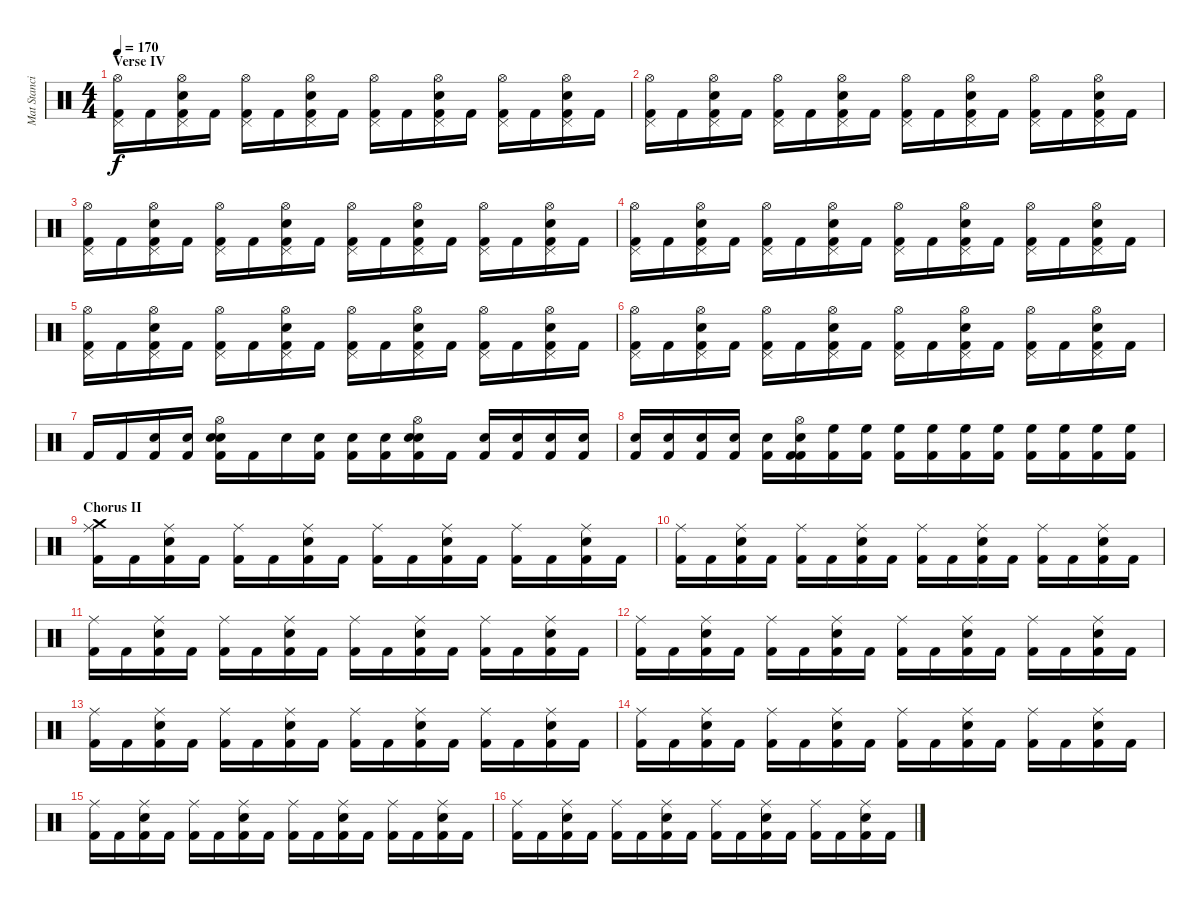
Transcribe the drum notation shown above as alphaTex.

\track ("Mat Stancioiu" "Mat Stanci") {instrument percussion}
\staff {score}
\articulation defaults
\ts (4 4)
\section ("" "Verse IV")
\tempo 170
\clef neutral
\ks c
("Hi-Hat (open)" "Kick (hit) 2" "Pedal Hi-Hat (hit)").16{dy f} "Kick (hit) 2".16 ("Electric Snare (hit)" "Hi-Hat (open)" "Kick (hit) 2" "Pedal Hi-Hat (hit)").16 "Kick (hit) 2".16 ("Hi-Hat (open)" "Kick (hit) 2" "Pedal Hi-Hat (hit)").16 "Kick (hit) 2".16 ("Electric Snare (hit)" "Hi-Hat (open)" "Kick (hit) 2" "Pedal Hi-Hat (hit)").16 "Kick (hit) 2".16 ("Hi-Hat (open)" "Kick (hit) 2" "Pedal Hi-Hat (hit)").16 "Kick (hit) 2".16 ("Electric Snare (hit)" "Hi-Hat (open)" "Kick (hit) 2" "Pedal Hi-Hat (hit)").16 "Kick (hit) 2".16 ("Hi-Hat (open)" "Kick (hit) 2" "Pedal Hi-Hat (hit)").16 "Kick (hit) 2".16 ("Electric Snare (hit)" "Hi-Hat (open)" "Kick (hit) 2" "Pedal Hi-Hat (hit)").16 "Kick (hit) 2".16 |
("Hi-Hat (open)" "Kick (hit) 2" "Pedal Hi-Hat (hit)").16 "Kick (hit) 2".16 ("Electric Snare (hit)" "Hi-Hat (open)" "Kick (hit) 2" "Pedal Hi-Hat (hit)").16 "Kick (hit) 2".16 ("Hi-Hat (open)" "Kick (hit) 2" "Pedal Hi-Hat (hit)").16 "Kick (hit) 2".16 ("Electric Snare (hit)" "Hi-Hat (open)" "Kick (hit) 2" "Pedal Hi-Hat (hit)").16 "Kick (hit) 2".16 ("Hi-Hat (open)" "Kick (hit) 2" "Pedal Hi-Hat (hit)").16 "Kick (hit) 2".16 ("Electric Snare (hit)" "Hi-Hat (open)" "Kick (hit) 2" "Pedal Hi-Hat (hit)").16 "Kick (hit) 2".16 ("Hi-Hat (open)" "Kick (hit) 2" "Pedal Hi-Hat (hit)").16 "Kick (hit) 2".16 ("Electric Snare (hit)" "Hi-Hat (open)" "Kick (hit) 2" "Pedal Hi-Hat (hit)").16 "Kick (hit) 2".16 |
("Hi-Hat (open)" "Kick (hit) 2" "Pedal Hi-Hat (hit)").16 "Kick (hit) 2".16 ("Electric Snare (hit)" "Hi-Hat (open)" "Kick (hit) 2" "Pedal Hi-Hat (hit)").16 "Kick (hit) 2".16 ("Hi-Hat (open)" "Kick (hit) 2" "Pedal Hi-Hat (hit)").16 "Kick (hit) 2".16 ("Electric Snare (hit)" "Hi-Hat (open)" "Kick (hit) 2" "Pedal Hi-Hat (hit)").16 "Kick (hit) 2".16 ("Hi-Hat (open)" "Kick (hit) 2" "Pedal Hi-Hat (hit)").16 "Kick (hit) 2".16 ("Electric Snare (hit)" "Hi-Hat (open)" "Kick (hit) 2" "Pedal Hi-Hat (hit)").16 "Kick (hit) 2".16 ("Hi-Hat (open)" "Kick (hit) 2" "Pedal Hi-Hat (hit)").16 "Kick (hit) 2".16 ("Electric Snare (hit)" "Hi-Hat (open)" "Kick (hit) 2" "Pedal Hi-Hat (hit)").16 "Kick (hit) 2".16 |
("Hi-Hat (open)" "Kick (hit) 2" "Pedal Hi-Hat (hit)").16 "Kick (hit) 2".16 ("Electric Snare (hit)" "Hi-Hat (open)" "Kick (hit) 2" "Pedal Hi-Hat (hit)").16 "Kick (hit) 2".16 ("Hi-Hat (open)" "Kick (hit) 2" "Pedal Hi-Hat (hit)").16 "Kick (hit) 2".16 ("Electric Snare (hit)" "Hi-Hat (open)" "Kick (hit) 2" "Pedal Hi-Hat (hit)").16 "Kick (hit) 2".16 ("Hi-Hat (open)" "Kick (hit) 2" "Pedal Hi-Hat (hit)").16 "Kick (hit) 2".16 ("Electric Snare (hit)" "Hi-Hat (open)" "Kick (hit) 2" "Pedal Hi-Hat (hit)").16 "Kick (hit) 2".16 ("Hi-Hat (open)" "Kick (hit) 2" "Pedal Hi-Hat (hit)").16 "Kick (hit) 2".16 ("Electric Snare (hit)" "Hi-Hat (open)" "Kick (hit) 2" "Pedal Hi-Hat (hit)").16 "Kick (hit) 2".16 |
("Hi-Hat (open)" "Kick (hit) 2" "Pedal Hi-Hat (hit)").16 "Kick (hit) 2".16 ("Electric Snare (hit)" "Hi-Hat (open)" "Kick (hit) 2" "Pedal Hi-Hat (hit)").16 "Kick (hit) 2".16 ("Hi-Hat (open)" "Kick (hit) 2" "Pedal Hi-Hat (hit)").16 "Kick (hit) 2".16 ("Electric Snare (hit)" "Hi-Hat (open)" "Kick (hit) 2" "Pedal Hi-Hat (hit)").16 "Kick (hit) 2".16 ("Hi-Hat (open)" "Kick (hit) 2" "Pedal Hi-Hat (hit)").16 "Kick (hit) 2".16 ("Electric Snare (hit)" "Hi-Hat (open)" "Kick (hit) 2" "Pedal Hi-Hat (hit)").16 "Kick (hit) 2".16 ("Hi-Hat (open)" "Kick (hit) 2" "Pedal Hi-Hat (hit)").16 "Kick (hit) 2".16 ("Electric Snare (hit)" "Hi-Hat (open)" "Kick (hit) 2" "Pedal Hi-Hat (hit)").16 "Kick (hit) 2".16 |
("Hi-Hat (open)" "Kick (hit) 2" "Pedal Hi-Hat (hit)").16 "Kick (hit) 2".16 ("Electric Snare (hit)" "Hi-Hat (open)" "Kick (hit) 2" "Pedal Hi-Hat (hit)").16 "Kick (hit) 2".16 ("Hi-Hat (open)" "Kick (hit) 2" "Pedal Hi-Hat (hit)").16 "Kick (hit) 2".16 ("Electric Snare (hit)" "Hi-Hat (open)" "Kick (hit) 2" "Pedal Hi-Hat (hit)").16 "Kick (hit) 2".16 ("Hi-Hat (open)" "Kick (hit) 2" "Pedal Hi-Hat (hit)").16 "Kick (hit) 2".16 ("Electric Snare (hit)" "Hi-Hat (open)" "Kick (hit) 2" "Pedal Hi-Hat (hit)").16 "Kick (hit) 2".16 ("Hi-Hat (open)" "Kick (hit) 2" "Pedal Hi-Hat (hit)").16 "Kick (hit) 2".16 ("Electric Snare (hit)" "Hi-Hat (open)" "Kick (hit) 2" "Pedal Hi-Hat (hit)").16 "Kick (hit) 2".16 |
"Kick (hit) 2".16 "Kick (hit) 2".16 ("Electric Snare (hit)" "Kick (hit) 2").16 ("Electric Snare (hit)" "Kick (hit) 2").16 ("Electric Snare (hit)" "Kick (hit) 2" "Hi-Hat (open)" "Snare (hit)").16 "Kick (hit) 2".16 "Electric Snare (hit)".16 ("Electric Snare (hit)" "Kick (hit) 2").16 ("Electric Snare (hit)" "Kick (hit) 2").16 ("Electric Snare (hit)" "Kick (hit) 2").16 ("Electric Snare (hit)" "Kick (hit) 2" "Hi-Hat (open)" "Snare (hit)").16 "Kick (hit) 2".16 ("Electric Snare (hit)" "Kick (hit) 2").16 ("Electric Snare (hit)" "Kick (hit) 2").16 ("Electric Snare (hit)" "Kick (hit) 2").16 ("Electric Snare (hit)" "Kick (hit) 2").16 |
("Electric Snare (hit)" "Kick (hit) 2").16 ("Electric Snare (hit)" "Kick (hit) 2").16 ("Electric Snare (hit)" "Kick (hit) 2").16 ("Electric Snare (hit)" "Kick (hit) 2").16 ("Electric Snare (hit)" "Kick (hit) 2").16 ("Kick (hit) 2" "Kick (hit) 2" "Hi-Hat (open)" "Snare (hit)").16 ("Kick (hit) 2" "High Floor Tom (hit)").16 ("Kick (hit) 2" "High Floor Tom (hit)").16 ("Kick (hit) 2" "High Floor Tom (hit)").16 ("Kick (hit) 2" "High Floor Tom (hit)").16 ("Kick (hit) 2" "High Floor Tom (hit)").16 ("Kick (hit) 2" "High Floor Tom (hit)").16 ("Kick (hit) 2" "High Floor Tom (hit)").16 ("Kick (hit) 2" "High Floor Tom (hit)").16 ("Kick (hit) 2" "High Floor Tom (hit)").16 ("Kick (hit) 2" "High Floor Tom (hit)").16 |
\section ("" "Chorus II")
("Crash medium (hit)" "Kick (hit) 2" "Ride (middle)").16 "Kick (hit) 2".16 ("Electric Snare (hit)" "Kick (hit) 2" "Ride (middle)").16 "Kick (hit) 2".16 ("Kick (hit) 2" "Ride (middle)").16 "Kick (hit) 2".16 ("Electric Snare (hit)" "Kick (hit) 2" "Ride (middle)").16 "Kick (hit) 2".16 ("Kick (hit) 2" "Ride (middle)").16 "Kick (hit) 2".16 ("Electric Snare (hit)" "Kick (hit) 2" "Ride (middle)").16 "Kick (hit) 2".16 ("Kick (hit) 2" "Ride (middle)").16 "Kick (hit) 2".16 ("Electric Snare (hit)" "Kick (hit) 2" "Ride (middle)").16 "Kick (hit) 2".16 |
("Kick (hit) 2" "Ride (middle)").16 "Kick (hit) 2".16 ("Electric Snare (hit)" "Kick (hit) 2" "Ride (middle)").16 "Kick (hit) 2".16 ("Kick (hit) 2" "Ride (middle)").16 "Kick (hit) 2".16 ("Electric Snare (hit)" "Kick (hit) 2" "Ride (middle)").16 "Kick (hit) 2".16 ("Kick (hit) 2" "Ride (middle)").16 "Kick (hit) 2".16 ("Electric Snare (hit)" "Kick (hit) 2" "Ride (middle)").16 "Kick (hit) 2".16 ("Kick (hit) 2" "Ride (middle)").16 "Kick (hit) 2".16 ("Electric Snare (hit)" "Kick (hit) 2" "Ride (middle)").16 "Kick (hit) 2".16 |
("Kick (hit) 2" "Ride (middle)").16 "Kick (hit) 2".16 ("Electric Snare (hit)" "Kick (hit) 2" "Ride (middle)").16 "Kick (hit) 2".16 ("Kick (hit) 2" "Ride (middle)").16 "Kick (hit) 2".16 ("Electric Snare (hit)" "Kick (hit) 2" "Ride (middle)").16 "Kick (hit) 2".16 ("Kick (hit) 2" "Ride (middle)").16 "Kick (hit) 2".16 ("Electric Snare (hit)" "Kick (hit) 2" "Ride (middle)").16 "Kick (hit) 2".16 ("Kick (hit) 2" "Ride (middle)").16 "Kick (hit) 2".16 ("Electric Snare (hit)" "Kick (hit) 2" "Ride (middle)").16 "Kick (hit) 2".16 |
("Kick (hit) 2" "Ride (middle)").16 "Kick (hit) 2".16 ("Electric Snare (hit)" "Kick (hit) 2" "Ride (middle)").16 "Kick (hit) 2".16 ("Kick (hit) 2" "Ride (middle)").16 "Kick (hit) 2".16 ("Electric Snare (hit)" "Kick (hit) 2" "Ride (middle)").16 "Kick (hit) 2".16 ("Kick (hit) 2" "Ride (middle)").16 "Kick (hit) 2".16 ("Electric Snare (hit)" "Kick (hit) 2" "Ride (middle)").16 "Kick (hit) 2".16 ("Kick (hit) 2" "Ride (middle)").16 "Kick (hit) 2".16 ("Electric Snare (hit)" "Kick (hit) 2" "Ride (middle)").16 "Kick (hit) 2".16 |
("Kick (hit) 2" "Ride (middle)").16 "Kick (hit) 2".16 ("Electric Snare (hit)" "Kick (hit) 2" "Ride (middle)").16 "Kick (hit) 2".16 ("Kick (hit) 2" "Ride (middle)").16 "Kick (hit) 2".16 ("Electric Snare (hit)" "Kick (hit) 2" "Ride (middle)").16 "Kick (hit) 2".16 ("Kick (hit) 2" "Ride (middle)").16 "Kick (hit) 2".16 ("Electric Snare (hit)" "Kick (hit) 2" "Ride (middle)").16 "Kick (hit) 2".16 ("Kick (hit) 2" "Ride (middle)").16 "Kick (hit) 2".16 ("Electric Snare (hit)" "Kick (hit) 2" "Ride (middle)").16 "Kick (hit) 2".16 |
("Kick (hit) 2" "Ride (middle)").16 "Kick (hit) 2".16 ("Electric Snare (hit)" "Kick (hit) 2" "Ride (middle)").16 "Kick (hit) 2".16 ("Kick (hit) 2" "Ride (middle)").16 "Kick (hit) 2".16 ("Electric Snare (hit)" "Kick (hit) 2" "Ride (middle)").16 "Kick (hit) 2".16 ("Kick (hit) 2" "Ride (middle)").16 "Kick (hit) 2".16 ("Electric Snare (hit)" "Kick (hit) 2" "Ride (middle)").16 "Kick (hit) 2".16 ("Kick (hit) 2" "Ride (middle)").16 "Kick (hit) 2".16 ("Electric Snare (hit)" "Kick (hit) 2" "Ride (middle)").16 "Kick (hit) 2".16 |
("Kick (hit) 2" "Ride (middle)").16 "Kick (hit) 2".16 ("Electric Snare (hit)" "Kick (hit) 2" "Ride (middle)").16 "Kick (hit) 2".16 ("Kick (hit) 2" "Ride (middle)").16 "Kick (hit) 2".16 ("Electric Snare (hit)" "Kick (hit) 2" "Ride (middle)").16 "Kick (hit) 2".16 ("Kick (hit) 2" "Ride (middle)").16 "Kick (hit) 2".16 ("Electric Snare (hit)" "Kick (hit) 2" "Ride (middle)").16 "Kick (hit) 2".16 ("Kick (hit) 2" "Ride (middle)").16 "Kick (hit) 2".16 ("Electric Snare (hit)" "Kick (hit) 2" "Ride (middle)").16 "Kick (hit) 2".16 |
("Kick (hit) 2" "Ride (middle)").16 "Kick (hit) 2".16 ("Electric Snare (hit)" "Kick (hit) 2" "Ride (middle)").16 "Kick (hit) 2".16 ("Kick (hit) 2" "Ride (middle)").16 "Kick (hit) 2".16 ("Electric Snare (hit)" "Kick (hit) 2" "Ride (middle)").16 "Kick (hit) 2".16 ("Kick (hit) 2" "Ride (middle)").16 "Kick (hit) 2".16 ("Electric Snare (hit)" "Kick (hit) 2" "Ride (middle)").16 "Kick (hit) 2".16 ("Kick (hit) 2" "Ride (middle)").16 "Kick (hit) 2".16 ("Electric Snare (hit)" "Kick (hit) 2" "Ride (middle)").16 "Kick (hit) 2".16
